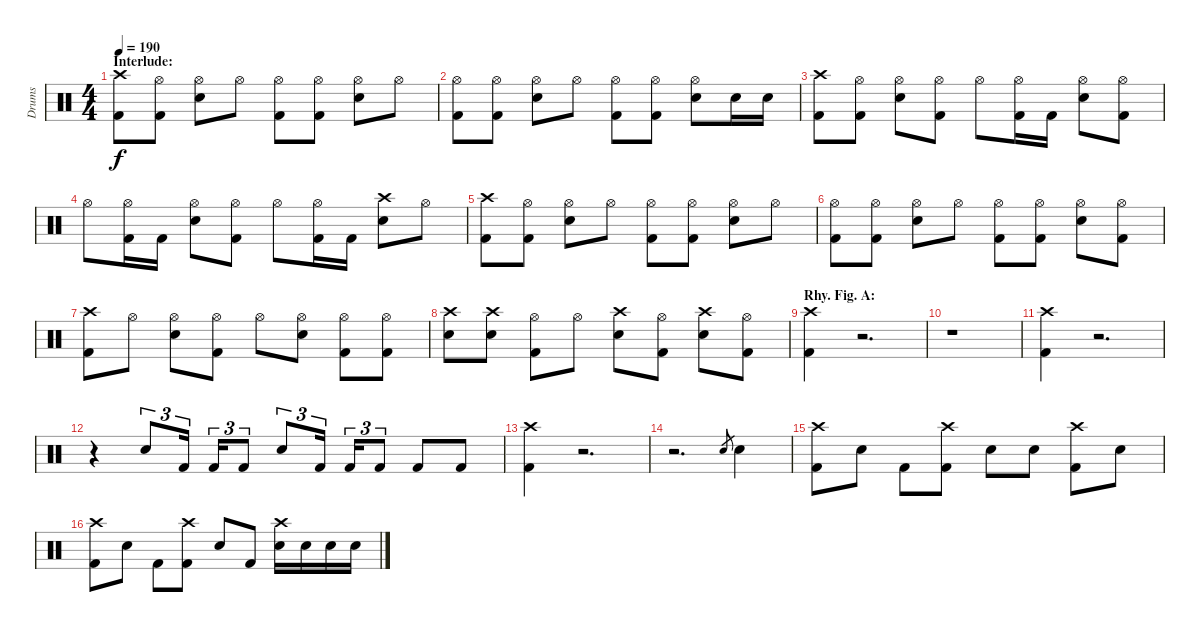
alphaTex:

\track ("Drums" "Drums") {instrument percussion}
\staff {score}
\articulation defaults
\ts (4 4)
\section ("" "Interlude:")
\tempo 190
\clef neutral
\ks c
("Crash high (hit)" "Kick (hit) 2").8{dy f} ("Hi-Hat (open)" "Kick (hit) 2").8 ("Hi-Hat (open)" "Electric Snare (hit)").8 "Hi-Hat (open)".8 ("Hi-Hat (open)" "Kick (hit) 2").8 ("Hi-Hat (open)" "Kick (hit) 2").8 ("Hi-Hat (open)" "Electric Snare (hit)").8 "Hi-Hat (open)".8 |
("Hi-Hat (open)" "Kick (hit) 2").8 ("Hi-Hat (open)" "Kick (hit) 2").8 ("Hi-Hat (open)" "Electric Snare (hit)").8 "Hi-Hat (open)".8 ("Hi-Hat (open)" "Kick (hit) 2").8 ("Hi-Hat (open)" "Kick (hit) 2").8 ("Hi-Hat (open)" "Electric Snare (hit)").8 "Electric Snare (hit)".16 "Electric Snare (hit)".16 |
("Crash high (hit)" "Kick (hit) 2").8 ("Hi-Hat (open)" "Kick (hit) 2").8 ("Hi-Hat (open)" "Electric Snare (hit)").8 ("Hi-Hat (open)" "Kick (hit) 2").8 "Hi-Hat (open)".8 ("Hi-Hat (open)" "Kick (hit) 2").16 "Kick (hit) 2".16 ("Hi-Hat (open)" "Electric Snare (hit)").8 ("Hi-Hat (open)" "Kick (hit) 2").8 |
"Hi-Hat (open)".8 ("Hi-Hat (open)" "Kick (hit) 2").16 "Kick (hit) 2".16 ("Hi-Hat (open)" "Electric Snare (hit)").8 ("Hi-Hat (open)" "Kick (hit) 2").8 "Hi-Hat (open)".8 ("Hi-Hat (open)" "Kick (hit) 2").16 "Kick (hit) 2".16 ("Crash high (hit)" "Electric Snare (hit)").8 "Hi-Hat (open)".8 |
("Crash high (hit)" "Kick (hit) 2").8 ("Hi-Hat (open)" "Kick (hit) 2").8 ("Hi-Hat (open)" "Electric Snare (hit)").8 "Hi-Hat (open)".8 ("Hi-Hat (open)" "Kick (hit) 2").8 ("Hi-Hat (open)" "Kick (hit) 2").8 ("Hi-Hat (open)" "Electric Snare (hit)").8 "Hi-Hat (open)".8 |
("Hi-Hat (open)" "Kick (hit) 2").8 ("Hi-Hat (open)" "Kick (hit) 2").8 ("Hi-Hat (open)" "Electric Snare (hit)").8 "Hi-Hat (open)".8 ("Hi-Hat (open)" "Kick (hit) 2").8 ("Hi-Hat (open)" "Kick (hit) 2").8 ("Hi-Hat (open)" "Electric Snare (hit)").8 ("Hi-Hat (open)" "Kick (hit) 2").8 |
("Crash high (hit)" "Kick (hit) 2").8 "Hi-Hat (open)".8 ("Hi-Hat (open)" "Electric Snare (hit)").8 ("Hi-Hat (open)" "Kick (hit) 2").8 "Hi-Hat (open)".8 ("Hi-Hat (open)" "Electric Snare (hit)").8 ("Hi-Hat (open)" "Kick (hit) 2").8 ("Hi-Hat (open)" "Kick (hit) 2").8 |
("Crash high (hit)" "Electric Snare (hit)").8 ("Crash high (hit)" "Electric Snare (hit)").8 ("Hi-Hat (open)" "Kick (hit) 2").8 "Hi-Hat (open)".8 ("Crash high (hit)" "Electric Snare (hit)").8 ("Hi-Hat (open)" "Kick (hit) 2").8 ("Crash high (hit)" "Electric Snare (hit)").8 ("Hi-Hat (open)" "Kick (hit) 2").8 |
\section ("" "Rhy. Fig. A:")
("Crash high (hit)" "Kick (hit) 2").4 r.2{d} |
r.1 |
("Crash high (hit)" "Kick (hit) 2").4 r.2{d} |
r.4 "Electric Snare (hit)".8{tu (3 2)} "Kick (hit) 2".16{tu (3 2)} "Kick (hit) 2".16{tu (3 2)} "Kick (hit) 2".8{tu (3 2)} "Electric Snare (hit)".8{tu (3 2)} "Kick (hit) 2".16{tu (3 2)} "Kick (hit) 2".16{tu (3 2)} "Kick (hit) 2".8{tu (3 2)} "Kick (hit) 2".8 "Kick (hit) 2".8 |
("Crash high (hit)" "Kick (hit) 2").4 r.2{d} |
r.2{d} "Electric Snare (hit)".8{gr} "Electric Snare (hit)".4 |
("Crash high (hit)" "Kick (hit) 2").8 "Electric Snare (hit)".8 "Kick (hit) 2".8 ("Crash high (hit)" "Kick (hit) 2").8 "Electric Snare (hit)".8 "Electric Snare (hit)".8 ("Crash high (hit)" "Kick (hit) 2").8 "Electric Snare (hit)".8 |
("Crash high (hit)" "Kick (hit) 2").8 "Electric Snare (hit)".8 "Kick (hit) 2".8 ("Crash high (hit)" "Kick (hit) 2").8 "Electric Snare (hit)".8 "Kick (hit) 2".8 ("Crash high (hit)" "Electric Snare (hit)").16 "Electric Snare (hit)".16 "Electric Snare (hit)".16 "Electric Snare (hit)".16
